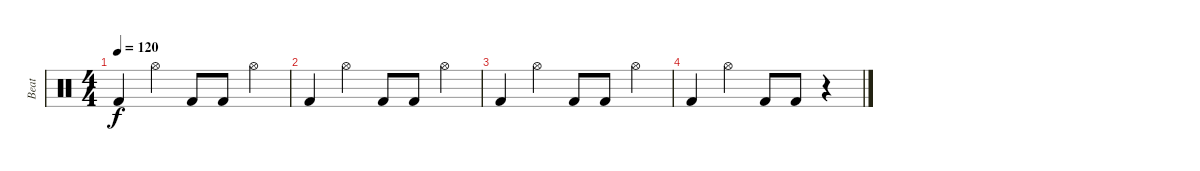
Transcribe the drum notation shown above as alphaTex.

\track ("Beat" "Beat") {instrument percussion}
\staff {score}
\articulation defaults
\ts (4 4)
\tempo 120
\clef neutral
\ks c "Kick (hit) 2".4{dy f} "Hi-Hat (open)".4 "Kick (hit) 2".8 "Kick (hit) 2".8 "Hi-Hat (open)".4
|
"Kick (hit) 2".4 "Hi-Hat (open)".4 "Kick (hit) 2".8 "Kick (hit) 2".8 "Hi-Hat (open)".4 |
"Kick (hit) 2".4 "Hi-Hat (open)".4 "Kick (hit) 2".8 "Kick (hit) 2".8 "Hi-Hat (open)".4 |
"Kick (hit) 2".4 "Hi-Hat (open)".4 "Kick (hit) 2".8 "Kick (hit) 2".8 r.4
